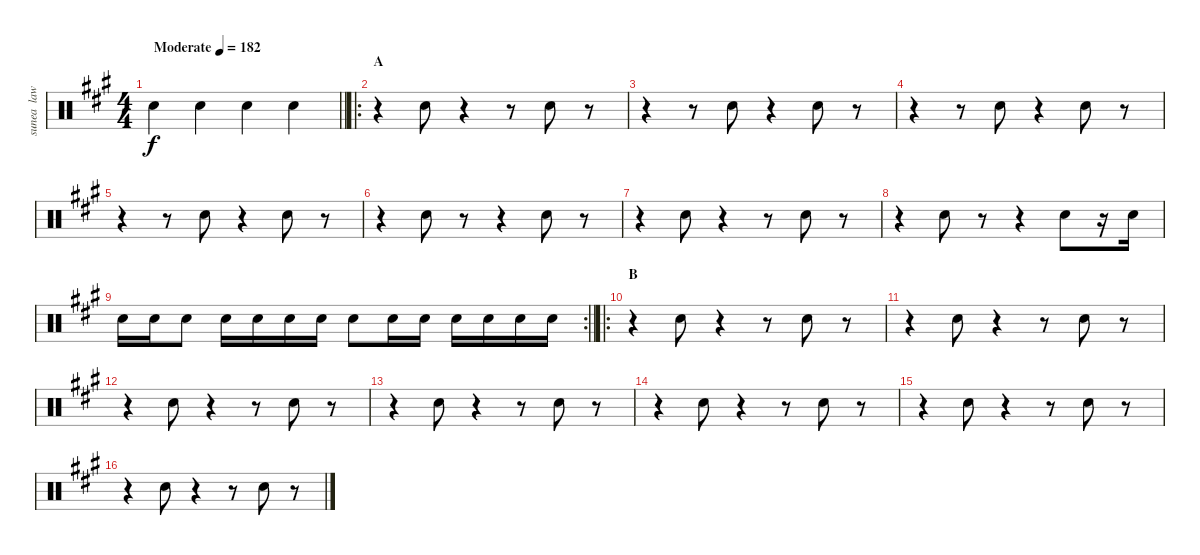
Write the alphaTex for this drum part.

\track ("sunea  law tam" "sunea  law") {instrument percussion}
\staff {score}
\articulation defaults
\ts (4 4)
\tempo (182 "Moderate")
\clef neutral
\barLineRight lightlight
\ks f#minor "Snare (hit) 2".4{dy f} "Snare (hit) 2".4 "Snare (hit) 2".4 "Snare (hit) 2".4
|
\ro
\section ("" "A")
r.4 "Snare (hit) 2".8 r.4 r.8 "Snare (hit) 2".8 r.8 |
r.4 r.8 "Snare (hit) 2".8 r.4 "Snare (hit) 2".8 r.8 |
r.4 r.8 "Snare (hit) 2".8 r.4 "Snare (hit) 2".8 r.8 |
r.4 r.8 "Snare (hit) 2".8 r.4 "Snare (hit) 2".8 r.8 |
r.4 "Snare (hit) 2".8 r.8 r.4 "Snare (hit) 2".8 r.8 |
r.4 "Snare (hit) 2".8 r.4 r.8 "Snare (hit) 2".8 r.8 |
r.4 "Snare (hit) 2".8 r.8 r.4 "Snare (hit) 2".8 r.16 "Snare (hit) 2".16 |
\rc 2
\barLineRight lightlight "Snare (hit) 2".16 "Snare (hit) 2".16 "Snare (hit) 2".8 "Snare (hit) 2".16 "Snare (hit) 2".16 "Snare (hit) 2".16 "Snare (hit) 2".16 "Snare (hit) 2".8 "Snare (hit) 2".16 "Snare (hit) 2".16 "Snare (hit) 2".16 "Snare (hit) 2".16 "Snare (hit) 2".16 "Snare (hit) 2".16
|
\ro
\section ("" "B")
r.4 "Snare (hit) 2".8 r.4 r.8 "Snare (hit) 2".8 r.8 |
r.4 "Snare (hit) 2".8 r.4 r.8 "Snare (hit) 2".8 r.8 |
r.4 "Snare (hit) 2".8 r.4 r.8 "Snare (hit) 2".8 r.8 |
r.4 "Snare (hit) 2".8 r.4 r.8 "Snare (hit) 2".8 r.8 |
r.4 "Snare (hit) 2".8 r.4 r.8 "Snare (hit) 2".8 r.8 |
r.4 "Snare (hit) 2".8 r.4 r.8 "Snare (hit) 2".8 r.8 |
r.4 "Snare (hit) 2".8 r.4 r.8 "Snare (hit) 2".8 r.8
